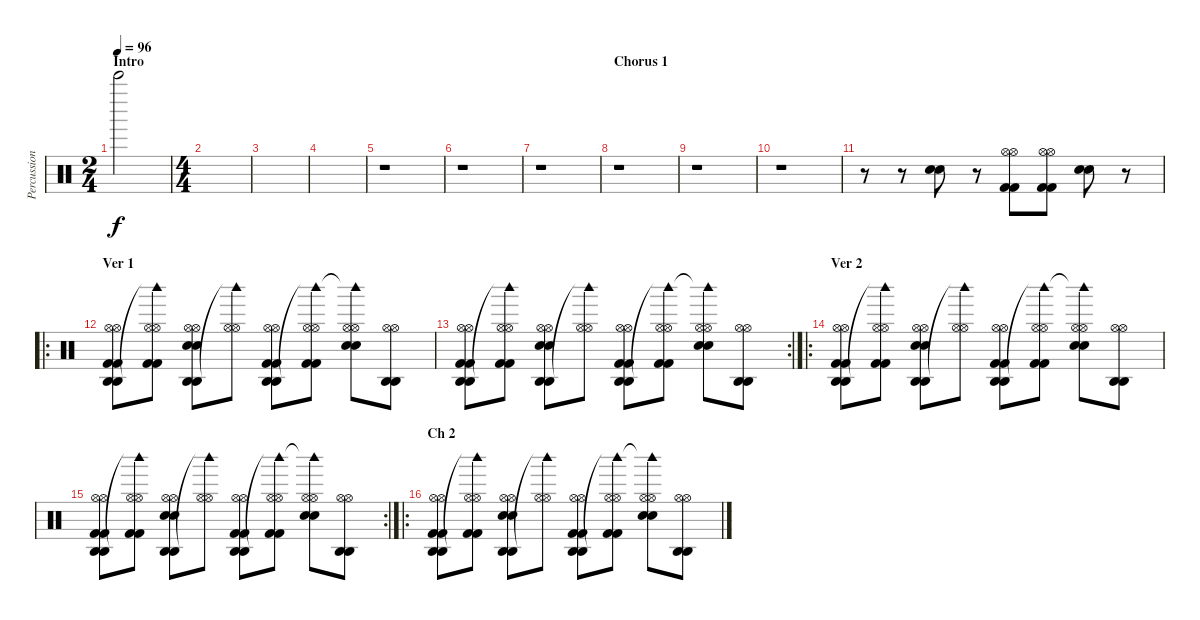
\track ("Percussions" "Percussion") {instrument percussion}
\staff {score}
\articulation defaults
\ts (2 4)
\section ("" "Intro")
\tempo 96
\clef neutral
\ks c "Bell Tree (hit)".2{dy f}
|
\ts (4 4)
|
|
|
r.1 |
r.1 |
r.1 |
\section ("" "Chorus 1")
r.1 |
r.1 |
r.1 |
r.8 r.8 ("Electric Snare (hit)" "Electric Snare (hit)").8 r.8 ("Hi-Hat (open)" "Hi-Hat (open)" "Kick (hit) 2" "Kick (hit) 2").8 ("Hi-Hat (open)" "Hi-Hat (open)" "Kick (hit) 2" "Kick (hit) 2").8 ("Electric Snare (hit)" "Electric Snare (hit)").8 r.8 |
\ro
\section ("" "Ver 1")
("Agogo high (hit)" "Hi-Hat (open)" "Hi-Hat (open)" "Agogo high (hit)" "Kick (hit) 2" "Kick (hit) 2").8 ("Woodblock high (hit)"{t} "Hi-Hat (open)" "Hi-Hat (open)" "Kick (hit) 2" "Kick (hit) 2").8 ("Agogo high (hit)" "Hi-Hat (open)" "Hi-Hat (open)" "Electric Snare (hit)" "Electric Snare (hit)" "Agogo high (hit)").8 ("Woodblock high (hit)"{t} "Hi-Hat (open)" "Hi-Hat (open)").8 ("Agogo high (hit)" "Hi-Hat (open)" "Hi-Hat (open)" "Agogo high (hit)" "Kick (hit) 2" "Kick (hit) 2").8 ("Woodblock high (hit)"{t} "Hi-Hat (open)" "Hi-Hat (open)" "Kick (hit) 2" "Kick (hit) 2").8 ("Woodblock high (hit)"{t} "Hi-Hat (open)" "Hi-Hat (open)" "Electric Snare (hit)" "Electric Snare (hit)").8 ("Agogo high (hit)" "Hi-Hat (open)" "Hi-Hat (open)" "Agogo high (hit)").8 |
\rc 2
("Agogo high (hit)" "Hi-Hat (open)" "Hi-Hat (open)" "Agogo high (hit)" "Kick (hit) 2" "Kick (hit) 2").8 ("Woodblock high (hit)"{t} "Hi-Hat (open)" "Hi-Hat (open)" "Kick (hit) 2" "Kick (hit) 2").8 ("Agogo high (hit)" "Hi-Hat (open)" "Hi-Hat (open)" "Electric Snare (hit)" "Electric Snare (hit)" "Agogo high (hit)").8 ("Woodblock high (hit)"{t} "Hi-Hat (open)" "Hi-Hat (open)").8 ("Agogo high (hit)" "Hi-Hat (open)" "Hi-Hat (open)" "Agogo high (hit)" "Kick (hit) 2" "Kick (hit) 2").8 ("Woodblock high (hit)"{t} "Hi-Hat (open)" "Hi-Hat (open)" "Kick (hit) 2" "Kick (hit) 2").8 ("Woodblock high (hit)"{t} "Hi-Hat (open)" "Hi-Hat (open)" "Electric Snare (hit)" "Electric Snare (hit)").8 ("Agogo high (hit)" "Hi-Hat (open)" "Hi-Hat (open)" "Agogo high (hit)").8 |
\ro
\section ("" "Ver 2")
("Agogo high (hit)" "Hi-Hat (open)" "Hi-Hat (open)" "Agogo high (hit)" "Kick (hit) 2" "Kick (hit) 2").8 ("Woodblock high (hit)"{t} "Hi-Hat (open)" "Hi-Hat (open)" "Kick (hit) 2" "Kick (hit) 2").8 ("Agogo high (hit)" "Hi-Hat (open)" "Hi-Hat (open)" "Electric Snare (hit)" "Electric Snare (hit)" "Agogo high (hit)").8 ("Woodblock high (hit)"{t} "Hi-Hat (open)" "Hi-Hat (open)").8 ("Agogo high (hit)" "Hi-Hat (open)" "Hi-Hat (open)" "Agogo high (hit)" "Kick (hit) 2" "Kick (hit) 2").8 ("Woodblock high (hit)"{t} "Hi-Hat (open)" "Hi-Hat (open)" "Kick (hit) 2" "Kick (hit) 2").8 ("Woodblock high (hit)"{t} "Hi-Hat (open)" "Hi-Hat (open)" "Electric Snare (hit)" "Electric Snare (hit)").8 ("Agogo high (hit)" "Hi-Hat (open)" "Hi-Hat (open)" "Agogo high (hit)").8 |
\rc 2
("Agogo high (hit)" "Hi-Hat (open)" "Hi-Hat (open)" "Agogo high (hit)" "Kick (hit) 2" "Kick (hit) 2").8 ("Woodblock high (hit)"{t} "Hi-Hat (open)" "Hi-Hat (open)" "Kick (hit) 2" "Kick (hit) 2").8 ("Agogo high (hit)" "Hi-Hat (open)" "Hi-Hat (open)" "Electric Snare (hit)" "Electric Snare (hit)" "Agogo high (hit)").8 ("Woodblock high (hit)"{t} "Hi-Hat (open)" "Hi-Hat (open)").8 ("Agogo high (hit)" "Hi-Hat (open)" "Hi-Hat (open)" "Agogo high (hit)" "Kick (hit) 2" "Kick (hit) 2").8 ("Woodblock high (hit)"{t} "Hi-Hat (open)" "Hi-Hat (open)" "Kick (hit) 2" "Kick (hit) 2").8 ("Woodblock high (hit)"{t} "Hi-Hat (open)" "Hi-Hat (open)" "Electric Snare (hit)" "Electric Snare (hit)").8 ("Agogo high (hit)" "Hi-Hat (open)" "Hi-Hat (open)" "Agogo high (hit)").8 |
\ro
\section ("" "Ch 2")
("Agogo high (hit)" "Hi-Hat (open)" "Hi-Hat (open)" "Agogo high (hit)" "Kick (hit) 2" "Kick (hit) 2").8 ("Woodblock high (hit)"{t} "Hi-Hat (open)" "Hi-Hat (open)" "Kick (hit) 2" "Kick (hit) 2").8 ("Agogo high (hit)" "Hi-Hat (open)" "Hi-Hat (open)" "Electric Snare (hit)" "Electric Snare (hit)" "Agogo high (hit)").8 ("Woodblock high (hit)"{t} "Hi-Hat (open)" "Hi-Hat (open)").8 ("Agogo high (hit)" "Hi-Hat (open)" "Hi-Hat (open)" "Agogo high (hit)" "Kick (hit) 2" "Kick (hit) 2").8 ("Woodblock high (hit)"{t} "Hi-Hat (open)" "Hi-Hat (open)" "Kick (hit) 2" "Kick (hit) 2").8 ("Woodblock high (hit)"{t} "Hi-Hat (open)" "Hi-Hat (open)" "Electric Snare (hit)" "Electric Snare (hit)").8 ("Agogo high (hit)" "Hi-Hat (open)" "Hi-Hat (open)" "Agogo high (hit)").8
